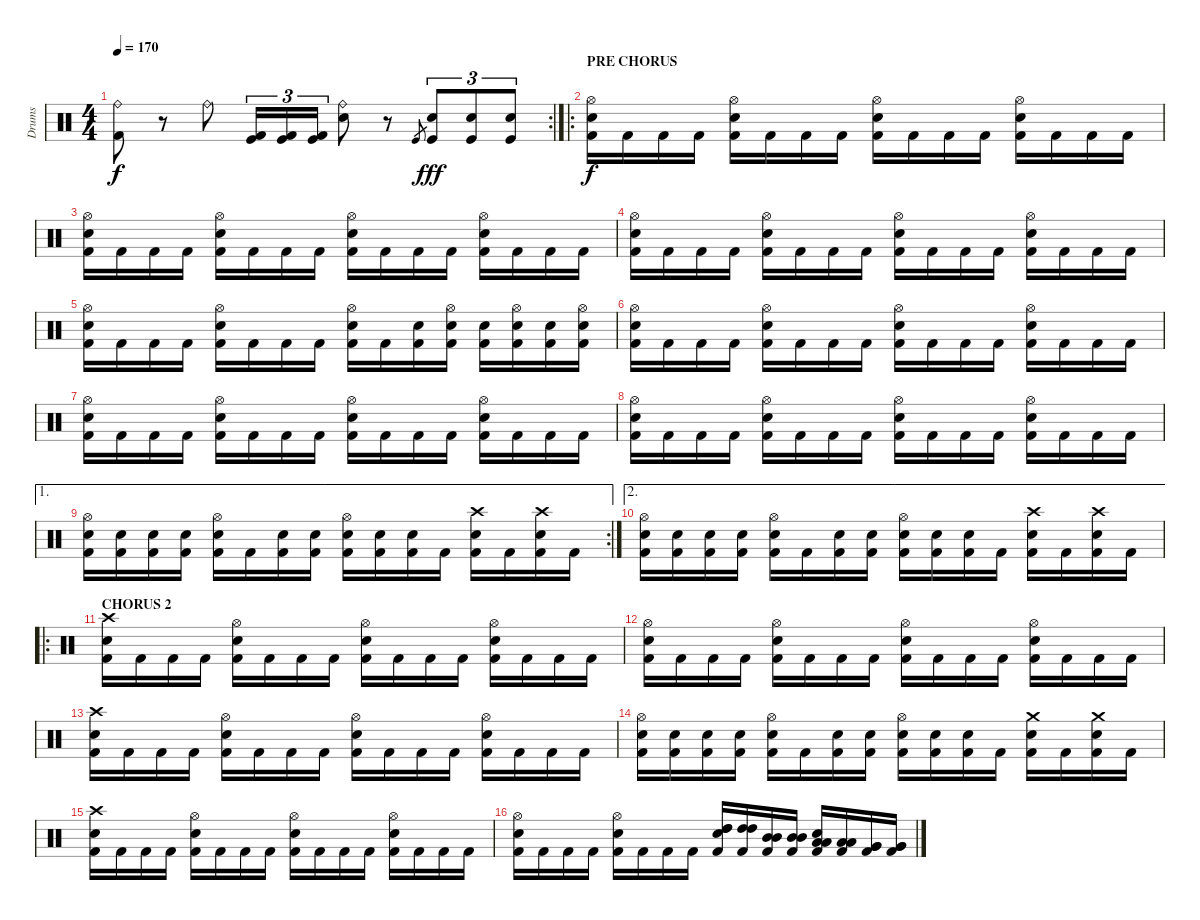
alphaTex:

\track ("Drums" "Drums") {instrument percussion}
\staff {score}
\articulation defaults
\rc 2
\ts (4 4)
\tempo 170
\clef neutral
\ks c
("Ride (bell)" "Kick (hit) 2").8{dy f} r.8 "Ride (bell)".8 ("Kick (hit)" "Kick (hit) 2").16{tu (3 2)} ("Kick (hit)" "Kick (hit) 2").16{tu (3 2)} ("Kick (hit)" "Kick (hit) 2").16{tu (3 2)} ("Ride (bell)" "Electric Snare (hit)").8 r.8 "Kick (hit)".8{gr} ("Kick (hit)" "Electric Snare (hit)").8{tu (3 2) dy fff} ("Kick (hit)" "Electric Snare (hit)").8{tu (3 2)} ("Kick (hit)" "Electric Snare (hit)").8{tu (3 2)} |
\ro
\section ("" "PRE CHORUS")
("Hi-Hat (open)" "Electric Snare (hit)" "Kick (hit) 2").16{dy f} "Kick (hit) 2".16 "Kick (hit) 2".16 "Kick (hit) 2".16 ("Hi-Hat (open)" "Electric Snare (hit)" "Kick (hit) 2").16 "Kick (hit) 2".16 "Kick (hit) 2".16 "Kick (hit) 2".16 ("Hi-Hat (open)" "Electric Snare (hit)" "Kick (hit) 2").16 "Kick (hit) 2".16 "Kick (hit) 2".16 "Kick (hit) 2".16 ("Hi-Hat (open)" "Electric Snare (hit)" "Kick (hit) 2").16 "Kick (hit) 2".16 "Kick (hit) 2".16 "Kick (hit) 2".16 |
("Hi-Hat (open)" "Electric Snare (hit)" "Kick (hit) 2").16 "Kick (hit) 2".16 "Kick (hit) 2".16 "Kick (hit) 2".16 ("Hi-Hat (open)" "Electric Snare (hit)" "Kick (hit) 2").16 "Kick (hit) 2".16 "Kick (hit) 2".16 "Kick (hit) 2".16 ("Hi-Hat (open)" "Electric Snare (hit)" "Kick (hit) 2").16 "Kick (hit) 2".16 "Kick (hit) 2".16 "Kick (hit) 2".16 ("Hi-Hat (open)" "Electric Snare (hit)" "Kick (hit) 2").16 "Kick (hit) 2".16 "Kick (hit) 2".16 "Kick (hit) 2".16 |
("Hi-Hat (open)" "Electric Snare (hit)" "Kick (hit) 2").16 "Kick (hit) 2".16 "Kick (hit) 2".16 "Kick (hit) 2".16 ("Hi-Hat (open)" "Electric Snare (hit)" "Kick (hit) 2").16 "Kick (hit) 2".16 "Kick (hit) 2".16 "Kick (hit) 2".16 ("Hi-Hat (open)" "Electric Snare (hit)" "Kick (hit) 2").16 "Kick (hit) 2".16 "Kick (hit) 2".16 "Kick (hit) 2".16 ("Hi-Hat (open)" "Electric Snare (hit)" "Kick (hit) 2").16 "Kick (hit) 2".16 "Kick (hit) 2".16 "Kick (hit) 2".16 |
("Hi-Hat (open)" "Electric Snare (hit)" "Kick (hit) 2").16 "Kick (hit) 2".16 "Kick (hit) 2".16 "Kick (hit) 2".16 ("Hi-Hat (open)" "Electric Snare (hit)" "Kick (hit) 2").16 "Kick (hit) 2".16 "Kick (hit) 2".16 "Kick (hit) 2".16 ("Hi-Hat (open)" "Electric Snare (hit)" "Kick (hit) 2").16 "Kick (hit) 2".16 ("Electric Snare (hit)" "Kick (hit) 2").16 ("Hi-Hat (open)" "Electric Snare (hit)" "Kick (hit) 2").16 ("Electric Snare (hit)" "Kick (hit) 2").16 ("Hi-Hat (open)" "Electric Snare (hit)" "Kick (hit) 2").16 ("Electric Snare (hit)" "Kick (hit) 2").16 ("Hi-Hat (open)" "Electric Snare (hit)" "Kick (hit) 2").16 |
("Hi-Hat (open)" "Electric Snare (hit)" "Kick (hit) 2").16 "Kick (hit) 2".16 "Kick (hit) 2".16 "Kick (hit) 2".16 ("Hi-Hat (open)" "Electric Snare (hit)" "Kick (hit) 2").16 "Kick (hit) 2".16 "Kick (hit) 2".16 "Kick (hit) 2".16 ("Hi-Hat (open)" "Electric Snare (hit)" "Kick (hit) 2").16 "Kick (hit) 2".16 "Kick (hit) 2".16 "Kick (hit) 2".16 ("Hi-Hat (open)" "Electric Snare (hit)" "Kick (hit) 2").16 "Kick (hit) 2".16 "Kick (hit) 2".16 "Kick (hit) 2".16 |
("Hi-Hat (open)" "Electric Snare (hit)" "Kick (hit) 2").16 "Kick (hit) 2".16 "Kick (hit) 2".16 "Kick (hit) 2".16 ("Hi-Hat (open)" "Electric Snare (hit)" "Kick (hit) 2").16 "Kick (hit) 2".16 "Kick (hit) 2".16 "Kick (hit) 2".16 ("Hi-Hat (open)" "Electric Snare (hit)" "Kick (hit) 2").16 "Kick (hit) 2".16 "Kick (hit) 2".16 "Kick (hit) 2".16 ("Hi-Hat (open)" "Electric Snare (hit)" "Kick (hit) 2").16 "Kick (hit) 2".16 "Kick (hit) 2".16 "Kick (hit) 2".16 |
("Hi-Hat (open)" "Electric Snare (hit)" "Kick (hit) 2").16 "Kick (hit) 2".16 "Kick (hit) 2".16 "Kick (hit) 2".16 ("Hi-Hat (open)" "Electric Snare (hit)" "Kick (hit) 2").16 "Kick (hit) 2".16 "Kick (hit) 2".16 "Kick (hit) 2".16 ("Hi-Hat (open)" "Electric Snare (hit)" "Kick (hit) 2").16 "Kick (hit) 2".16 "Kick (hit) 2".16 "Kick (hit) 2".16 ("Hi-Hat (open)" "Electric Snare (hit)" "Kick (hit) 2").16 "Kick (hit) 2".16 "Kick (hit) 2".16 "Kick (hit) 2".16 |
\ae 1
\rc 2
("Hi-Hat (open)" "Electric Snare (hit)" "Kick (hit) 2").16 ("Electric Snare (hit)" "Kick (hit) 2").16 ("Electric Snare (hit)" "Kick (hit) 2").16 ("Electric Snare (hit)" "Kick (hit) 2").16 ("Hi-Hat (open)" "Electric Snare (hit)" "Kick (hit) 2").16 "Kick (hit) 2".16 ("Electric Snare (hit)" "Kick (hit) 2").16 ("Electric Snare (hit)" "Kick (hit) 2").16 ("Hi-Hat (open)" "Electric Snare (hit)" "Kick (hit) 2").16 ("Electric Snare (hit)" "Kick (hit) 2").16 ("Electric Snare (hit)" "Kick (hit) 2").16 "Kick (hit) 2".16 ("Crash high (hit)" "Electric Snare (hit)" "Kick (hit) 2").16 "Kick (hit) 2".16 ("Crash high (hit)" "Electric Snare (hit)" "Kick (hit) 2").16 "Kick (hit) 2".16 |
\ae 2
("Hi-Hat (open)" "Electric Snare (hit)" "Kick (hit) 2").16 ("Electric Snare (hit)" "Kick (hit) 2").16 ("Electric Snare (hit)" "Kick (hit) 2").16 ("Electric Snare (hit)" "Kick (hit) 2").16 ("Hi-Hat (open)" "Electric Snare (hit)" "Kick (hit) 2").16 "Kick (hit) 2".16 ("Electric Snare (hit)" "Kick (hit) 2").16 ("Electric Snare (hit)" "Kick (hit) 2").16 ("Hi-Hat (open)" "Electric Snare (hit)" "Kick (hit) 2").16 ("Electric Snare (hit)" "Kick (hit) 2").16 ("Electric Snare (hit)" "Kick (hit) 2").16 "Kick (hit) 2".16 ("Crash high (hit)" "Electric Snare (hit)" "Kick (hit) 2").16 "Kick (hit) 2".16 ("Crash high (hit)" "Electric Snare (hit)" "Kick (hit) 2").16 "Kick (hit) 2".16 |
\ro
\section ("" "CHORUS 2")
("Crash high (hit)" "Electric Snare (hit)" "Kick (hit) 2").16 "Kick (hit) 2".16 "Kick (hit) 2".16 "Kick (hit) 2".16 ("Hi-Hat (open)" "Electric Snare (hit)" "Kick (hit) 2").16 "Kick (hit) 2".16 "Kick (hit) 2".16 "Kick (hit) 2".16 ("Hi-Hat (open)" "Electric Snare (hit)" "Kick (hit) 2").16 "Kick (hit) 2".16 "Kick (hit) 2".16 "Kick (hit) 2".16 ("Hi-Hat (open)" "Electric Snare (hit)" "Kick (hit) 2").16 "Kick (hit) 2".16 "Kick (hit) 2".16 "Kick (hit) 2".16 |
("Hi-Hat (open)" "Electric Snare (hit)" "Kick (hit) 2").16 "Kick (hit) 2".16 "Kick (hit) 2".16 "Kick (hit) 2".16 ("Hi-Hat (open)" "Electric Snare (hit)" "Kick (hit) 2").16 "Kick (hit) 2".16 "Kick (hit) 2".16 "Kick (hit) 2".16 ("Hi-Hat (open)" "Electric Snare (hit)" "Kick (hit) 2").16 "Kick (hit) 2".16 "Kick (hit) 2".16 "Kick (hit) 2".16 ("Hi-Hat (open)" "Electric Snare (hit)" "Kick (hit) 2").16 "Kick (hit) 2".16 "Kick (hit) 2".16 "Kick (hit) 2".16 |
("Crash high (hit)" "Electric Snare (hit)" "Kick (hit) 2").16 "Kick (hit) 2".16 "Kick (hit) 2".16 "Kick (hit) 2".16 ("Hi-Hat (open)" "Electric Snare (hit)" "Kick (hit) 2").16 "Kick (hit) 2".16 "Kick (hit) 2".16 "Kick (hit) 2".16 ("Hi-Hat (open)" "Electric Snare (hit)" "Kick (hit) 2").16 "Kick (hit) 2".16 "Kick (hit) 2".16 "Kick (hit) 2".16 ("Hi-Hat (open)" "Electric Snare (hit)" "Kick (hit) 2").16 "Kick (hit) 2".16 "Kick (hit) 2".16 "Kick (hit) 2".16 |
("Hi-Hat (open)" "Electric Snare (hit)" "Kick (hit) 2").16 ("Electric Snare (hit)" "Kick (hit) 2").16 ("Electric Snare (hit)" "Kick (hit) 2").16 ("Electric Snare (hit)" "Kick (hit) 2").16 ("Hi-Hat (open)" "Electric Snare (hit)" "Kick (hit) 2").16 "Kick (hit) 2".16 ("Electric Snare (hit)" "Kick (hit) 2").16 ("Electric Snare (hit)" "Kick (hit) 2").16 ("Hi-Hat (open)" "Electric Snare (hit)" "Kick (hit) 2").16 ("Electric Snare (hit)" "Kick (hit) 2").16 ("Electric Snare (hit)" "Kick (hit) 2").16 "Kick (hit) 2".16 ("Crash medium (hit)" "Electric Snare (hit)" "Kick (hit) 2").16 "Kick (hit) 2".16 ("Crash medium (hit)" "Electric Snare (hit)" "Kick (hit) 2").16 "Kick (hit) 2".16 |
("Crash high (hit)" "Electric Snare (hit)" "Kick (hit) 2").16 "Kick (hit) 2".16 "Kick (hit) 2".16 "Kick (hit) 2".16 ("Hi-Hat (open)" "Electric Snare (hit)" "Kick (hit) 2").16 "Kick (hit) 2".16 "Kick (hit) 2".16 "Kick (hit) 2".16 ("Hi-Hat (open)" "Electric Snare (hit)" "Kick (hit) 2").16 "Kick (hit) 2".16 "Kick (hit) 2".16 "Kick (hit) 2".16 ("Hi-Hat (open)" "Electric Snare (hit)" "Kick (hit) 2").16 "Kick (hit) 2".16 "Kick (hit) 2".16 "Kick (hit) 2".16 |
("Hi-Hat (open)" "Electric Snare (hit)" "Kick (hit) 2").16 "Kick (hit) 2".16 "Kick (hit) 2".16 "Kick (hit) 2".16 ("Hi-Hat (open)" "Electric Snare (hit)" "Kick (hit) 2").16 "Kick (hit) 2".16 "Kick (hit) 2".16 "Kick (hit) 2".16 ("High Tom (hit)" "High Tom (hit)" "Electric Snare (hit)" "Kick (hit) 2").16 ("High Tom (hit)" "High Tom (hit)" "Kick (hit) 2").16 ("Mid Tom (hit)" "Mid Tom (hit)" "Kick (hit) 2").16 ("Mid Tom (hit)" "Mid Tom (hit)" "Kick (hit) 2").16 ("Low Tom (hit)" "Low Tom (hit)" "Electric Snare (hit)" "Kick (hit) 2").16 ("Low Tom (hit)" "Low Tom (hit)" "Kick (hit) 2").16 ("Very Low Tom (hit)" "Very Low Tom (hit)" "Kick (hit) 2").16 ("Very Low Tom (hit)" "Very Low Tom (hit)" "Kick (hit) 2").16
